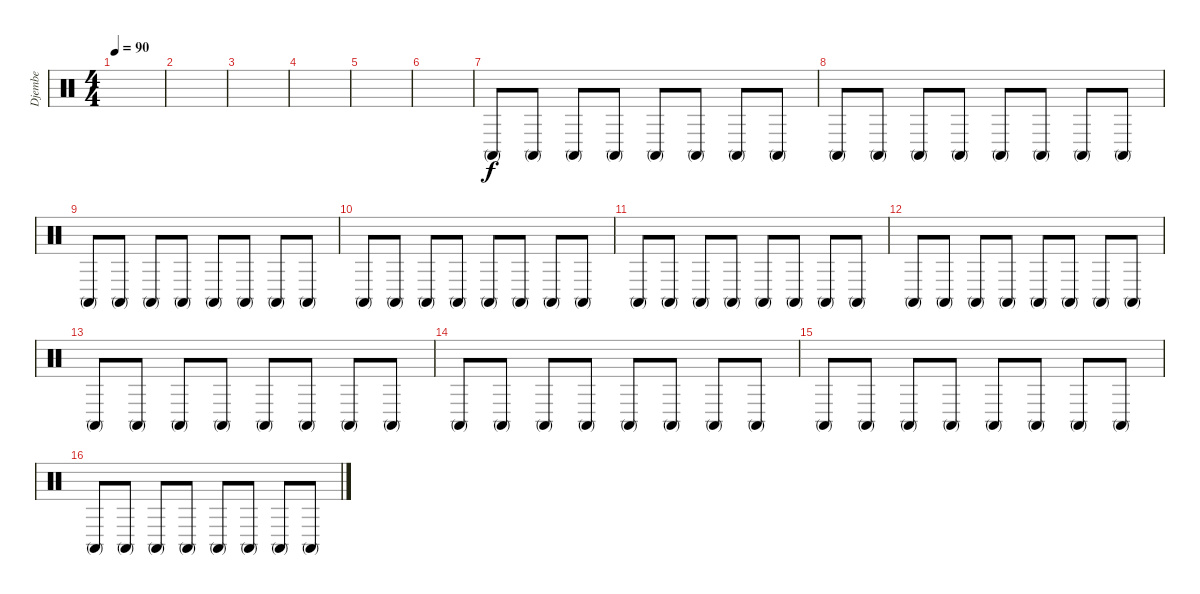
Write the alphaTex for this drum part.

\track ("Djembe" "Djembe") {instrument percussion}
\staff {score}
\articulation defaults
\ts (4 4)
\tempo 90
\clef neutral
\ks c
|
|
|
|
|
|
"Conga high (mute)".8 "Conga high (mute)".8 "Conga high (mute)".8 "Conga high (mute)".8 "Conga high (mute)".8 "Conga high (mute)".8 "Conga high (mute)".8 "Conga high (mute)".8 |
"Conga high (mute)".8 "Conga high (mute)".8 "Conga high (mute)".8 "Conga high (mute)".8 "Conga high (mute)".8 "Conga high (mute)".8 "Conga high (mute)".8 "Conga high (mute)".8 |
"Conga high (mute)".8 "Conga high (mute)".8 "Conga high (mute)".8 "Conga high (mute)".8 "Conga high (mute)".8 "Conga high (mute)".8 "Conga high (mute)".8 "Conga high (mute)".8 |
"Conga high (mute)".8 "Conga high (mute)".8 "Conga high (mute)".8 "Conga high (mute)".8 "Conga high (mute)".8 "Conga high (mute)".8 "Conga high (mute)".8 "Conga high (mute)".8 |
"Conga high (mute)".8 "Conga high (mute)".8 "Conga high (mute)".8 "Conga high (mute)".8 "Conga high (mute)".8 "Conga high (mute)".8 "Conga high (mute)".8 "Conga high (mute)".8 |
"Conga high (mute)".8 "Conga high (mute)".8 "Conga high (mute)".8 "Conga high (mute)".8 "Conga high (mute)".8 "Conga high (mute)".8 "Conga high (mute)".8 "Conga high (mute)".8 |
"Conga high (mute)".8 "Conga high (mute)".8 "Conga high (mute)".8 "Conga high (mute)".8 "Conga high (mute)".8 "Conga high (mute)".8 "Conga high (mute)".8 "Conga high (mute)".8 |
"Conga high (mute)".8 "Conga high (mute)".8 "Conga high (mute)".8 "Conga high (mute)".8 "Conga high (mute)".8 "Conga high (mute)".8 "Conga high (mute)".8 "Conga high (mute)".8 |
"Conga high (mute)".8 "Conga high (mute)".8 "Conga high (mute)".8 "Conga high (mute)".8 "Conga high (mute)".8 "Conga high (mute)".8 "Conga high (mute)".8 "Conga high (mute)".8 |
"Conga high (mute)".8 "Conga high (mute)".8 "Conga high (mute)".8 "Conga high (mute)".8 "Conga high (mute)".8 "Conga high (mute)".8 "Conga high (mute)".8 "Conga high (mute)".8
